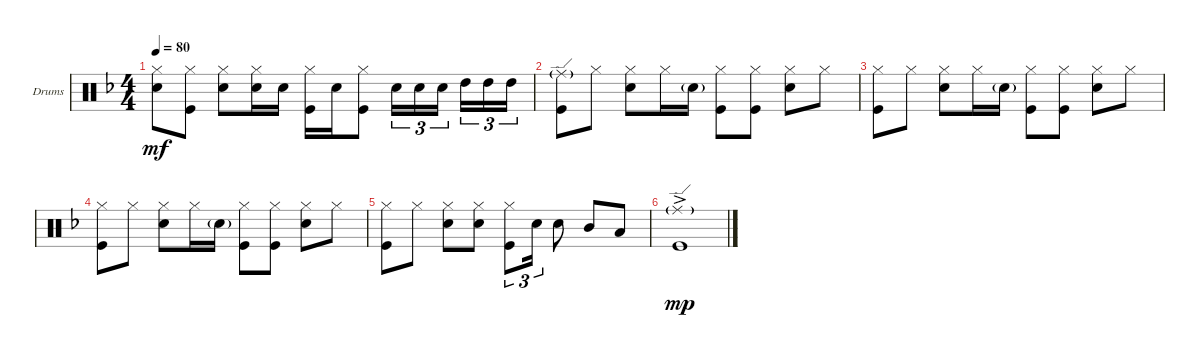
\defaultSystemsLayout 4
\bracketExtendMode groupsimilarinstruments
\firstSystemTrackNameOrientation horizontal
\otherSystemsTrackNameOrientation horizontal
\track ("Drumkit" "Drums") {instrument percussion}
\staff {score}
\articulation defaults
\ts (4 4)
\tempo 80
\clef neutral
\ks f
("Hi-Hat (closed)" "Snare (hit) 2").8{dy mf} ("Hi-Hat (closed)" "Kick (hit)").8 ("Snare (hit) 2" "Hi-Hat (closed)").8 ("Hi-Hat (closed)" "Snare (hit) 2").16 "Snare (hit) 2".16 ("Hi-Hat (closed)" "Kick (hit)").16 "Snare (hit) 2".16 ("Hi-Hat (closed)" "Kick (hit)").8 "Snare (hit) 2".16{tu (3 2)} "Snare (hit) 2".16{tu (3 2)} "Snare (hit) 2".16{tu (3 2)} "High Tom (hit)".16{tu (3 2)} "High Tom (hit)".16{tu (3 2)} "High Tom (hit)".16{tu (3 2)} |
("Kick (hit)" "Ride (edge)"{g}).8 "Hi-Hat (closed)".8 ("Snare (hit) 2" "Hi-Hat (closed)").8 "Hi-Hat (closed)".16 "Snare (hit) 2"{g}.16 ("Hi-Hat (closed)" "Kick (hit)").8 ("Hi-Hat (closed)" "Kick (hit)").8 ("Hi-Hat (closed)" "Snare (hit) 2").8 "Hi-Hat (closed)".8 |
("Kick (hit)" "Hi-Hat (closed)").8 "Hi-Hat (closed)".8 ("Snare (hit) 2" "Hi-Hat (closed)").8 "Hi-Hat (closed)".16 "Snare (hit) 2"{g}.16 ("Hi-Hat (closed)" "Kick (hit)").8 ("Hi-Hat (closed)" "Kick (hit)").8 ("Hi-Hat (closed)" "Snare (hit) 2").8 "Hi-Hat (closed)".8 |
("Kick (hit)" "Hi-Hat (closed)").8 "Hi-Hat (closed)".8 ("Snare (hit) 2" "Hi-Hat (closed)").8 "Hi-Hat (closed)".16 "Snare (hit) 2"{g}.16 ("Hi-Hat (closed)" "Kick (hit)").8 ("Hi-Hat (closed)" "Kick (hit)").8 ("Hi-Hat (closed)" "Snare (hit) 2").8 "Hi-Hat (closed)".8 |
("Kick (hit)" "Hi-Hat (closed)").8 "Hi-Hat (closed)".8 ("Snare (hit) 2" "Hi-Hat (closed)").8 ("Hi-Hat (closed)" "Snare (hit) 2").8 ("Hi-Hat (closed)" "Kick (hit)").8{tu (3 2)} "Snare (hit) 2".16{tu (3 2)} "Snare (hit) 2".8 "Mid Tom (hit)".8 "Low Tom (hit)".8 |
("Kick (hit)"{ac} "Ride (edge)"{g}).1{dy mp}
